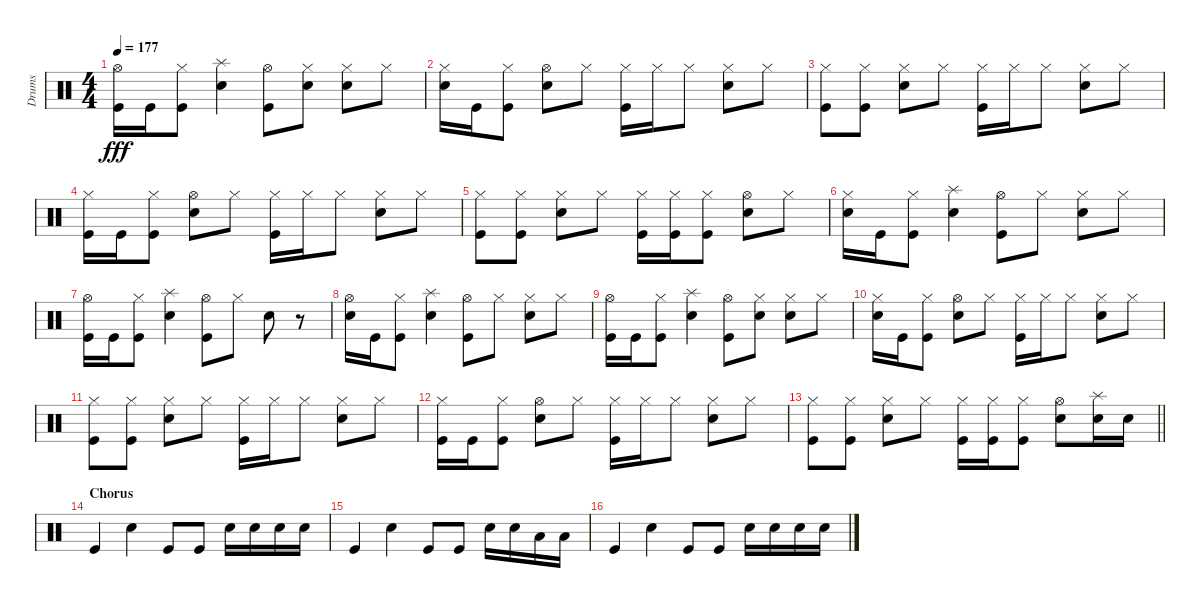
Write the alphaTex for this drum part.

\track ("Drums" "Drums") {instrument percussion}
\staff {score}
\articulation defaults
\ts (4 4)
\tempo 177
\clef neutral
\ks c
("Hi-Hat (open)" "Kick (hit)").16{dy fff} "Kick (hit)".16 ("Hi-Hat (closed)" "Kick (hit)").8 ("Splash (hit)" "Snare (hit) 2").4 ("Hi-Hat (open)" "Kick (hit)").8 ("Hi-Hat (closed)" "Snare (hit) 2").8 ("Hi-Hat (closed)" "Snare (hit) 2").8 "Hi-Hat (closed)".8 |
("Hi-Hat (closed)" "Snare (hit) 2").16 "Kick (hit)".16 ("Hi-Hat (closed)" "Kick (hit)").8 ("Hi-Hat (open)" "Snare (hit) 2").8 "Hi-Hat (closed)".8 ("Hi-Hat (closed)" "Kick (hit)").16 "Hi-Hat (closed)".16 "Hi-Hat (closed)".8 ("Hi-Hat (closed)" "Snare (hit) 2").8 "Hi-Hat (closed)".8 |
("Hi-Hat (closed)" "Kick (hit)").8 ("Hi-Hat (closed)" "Kick (hit)").8 ("Hi-Hat (closed)" "Snare (hit) 2").8 "Hi-Hat (closed)".8 ("Hi-Hat (closed)" "Kick (hit)").16 "Hi-Hat (closed)".16 "Hi-Hat (closed)".8 ("Hi-Hat (closed)" "Snare (hit) 2").8 "Hi-Hat (closed)".8 |
("Hi-Hat (closed)" "Kick (hit)").16 "Kick (hit)".16 ("Hi-Hat (closed)" "Kick (hit)").8 ("Hi-Hat (open)" "Snare (hit) 2").8 "Hi-Hat (closed)".8 ("Hi-Hat (closed)" "Kick (hit)").16 "Hi-Hat (closed)".16 "Hi-Hat (closed)".8 ("Hi-Hat (closed)" "Snare (hit) 2").8 "Hi-Hat (closed)".8 |
("Hi-Hat (closed)" "Kick (hit)").8 ("Hi-Hat (closed)" "Kick (hit)").8 ("Hi-Hat (closed)" "Snare (hit) 2").8 "Hi-Hat (closed)".8 ("Hi-Hat (closed)" "Kick (hit)").16 ("Hi-Hat (closed)" "Kick (hit)").16 ("Hi-Hat (closed)" "Kick (hit)").8 ("Hi-Hat (open)" "Snare (hit) 2").8 "Hi-Hat (closed)".8 |
("Hi-Hat (closed)" "Snare (hit) 2").16 "Kick (hit)".16 ("Hi-Hat (closed)" "Kick (hit)").8 ("Splash (hit)" "Snare (hit) 2").4 ("Hi-Hat (open)" "Kick (hit)").8 "Hi-Hat (closed)".8 ("Hi-Hat (closed)" "Snare (hit) 2").8 "Hi-Hat (closed)".8 |
("Hi-Hat (open)" "Kick (hit)").16 "Kick (hit)".16 ("Hi-Hat (closed)" "Kick (hit)").8 ("Splash (hit)" "Snare (hit) 2").4 ("Hi-Hat (open)" "Kick (hit)").8 "Hi-Hat (closed)".8 "Snare (hit) 2".8 r.8 |
("Hi-Hat (open)" "Snare (hit) 2").16 "Kick (hit)".16 ("Hi-Hat (closed)" "Kick (hit)").8 ("Splash (hit)" "Snare (hit) 2").4 ("Hi-Hat (open)" "Kick (hit)").8 "Hi-Hat (closed)".8 ("Hi-Hat (closed)" "Snare (hit) 2").8 "Hi-Hat (closed)".8 |
("Hi-Hat (open)" "Kick (hit)").16 "Kick (hit)".16 ("Hi-Hat (closed)" "Kick (hit)").8 ("Splash (hit)" "Snare (hit) 2").4 ("Hi-Hat (open)" "Kick (hit)").8 ("Hi-Hat (closed)" "Snare (hit) 2").8 ("Hi-Hat (closed)" "Snare (hit) 2").8 "Hi-Hat (closed)".8 |
("Hi-Hat (closed)" "Snare (hit) 2").16 "Kick (hit)".16 ("Hi-Hat (closed)" "Kick (hit)").8 ("Hi-Hat (open)" "Snare (hit) 2").8 "Hi-Hat (closed)".8 ("Hi-Hat (closed)" "Kick (hit)").16 "Hi-Hat (closed)".16 "Hi-Hat (closed)".8 ("Hi-Hat (closed)" "Snare (hit) 2").8 "Hi-Hat (closed)".8 |
("Hi-Hat (closed)" "Kick (hit)").8 ("Hi-Hat (closed)" "Kick (hit)").8 ("Hi-Hat (closed)" "Snare (hit) 2").8 "Hi-Hat (closed)".8 ("Hi-Hat (closed)" "Kick (hit)").16 "Hi-Hat (closed)".16 "Hi-Hat (closed)".8 ("Hi-Hat (closed)" "Snare (hit) 2").8 "Hi-Hat (closed)".8 |
("Hi-Hat (closed)" "Kick (hit)").16 "Kick (hit)".16 ("Hi-Hat (closed)" "Kick (hit)").8 ("Hi-Hat (open)" "Snare (hit) 2").8 "Hi-Hat (closed)".8 ("Hi-Hat (closed)" "Kick (hit)").16 "Hi-Hat (closed)".16 "Hi-Hat (closed)".8 ("Hi-Hat (closed)" "Snare (hit) 2").8 "Hi-Hat (closed)".8 |
\barLineRight lightlight
("Hi-Hat (closed)" "Kick (hit)").8 ("Hi-Hat (closed)" "Kick (hit)").8 ("Hi-Hat (closed)" "Snare (hit) 2").8 "Hi-Hat (closed)".8 ("Hi-Hat (closed)" "Kick (hit)").16 ("Hi-Hat (closed)" "Kick (hit)").16 ("Hi-Hat (closed)" "Kick (hit)").8 ("Hi-Hat (open)" "Snare (hit) 2").8 ("Splash (hit)" "Snare (hit) 2").16 "Snare (hit) 2".16 |
\section ("" "Chorus")
"Kick (hit)".4 "Snare (hit) 2".4 "Kick (hit)".8 "Kick (hit)".8 "Snare (hit) 2".16 "Snare (hit) 2".16 "Snare (hit) 2".16 "Snare (hit) 2".16 |
"Kick (hit)".4 "Snare (hit) 2".4 "Kick (hit)".8 "Kick (hit)".8 "Snare (hit) 2".16 "Snare (hit) 2".16 "Low Tom (hit)".16 "Low Tom (hit)".16 |
"Kick (hit)".4 "Snare (hit) 2".4 "Kick (hit)".8 "Kick (hit)".8 "Snare (hit) 2".16 "Snare (hit) 2".16 "Snare (hit) 2".16 "Snare (hit) 2".16
